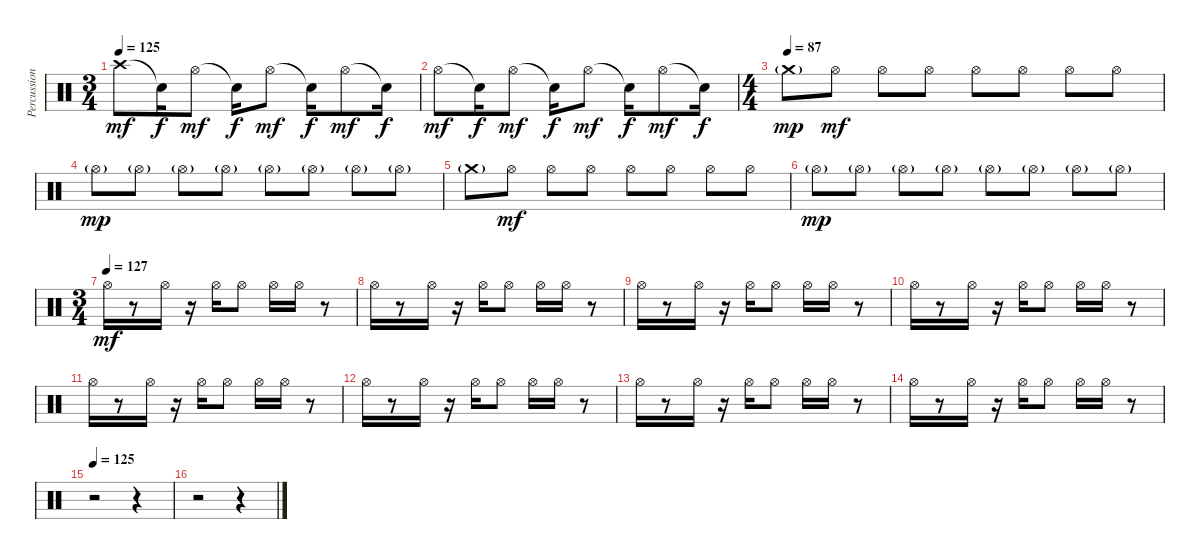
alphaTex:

\track ("Percussion2" "Percussion") {instrument percussion}
\staff {score}
\articulation defaults
\ts (3 4)
\tempo 125
\clef neutral
\ks c "Crash high (hit)".8{dy mf} "Snare (hit)"{t}.16{dy f} "Hi-Hat (open)".8{dy mf} "Snare (hit)"{t}.16{dy f} "Hi-Hat (open)".8{dy mf} "Snare (hit)"{t}.16{dy f} "Hi-Hat (open)".8{dy mf} "Snare (hit)"{t}.16{dy f}
|
"Hi-Hat (open)".8{dy mf} "Snare (hit)"{t}.16{dy f} "Hi-Hat (open)".8{dy mf} "Snare (hit)"{t}.16{dy f} "Hi-Hat (open)".8{dy mf} "Snare (hit)"{t}.16{dy f} "Hi-Hat (open)".8{dy mf} "Snare (hit)"{t}.16{dy f} |
\ts (4 4)
\tempo (87)
"Crash medium (hit)"{g}.8{dy mp} "Hi-Hat (open)".8{dy mf} "Hi-Hat (open)".8 "Hi-Hat (open)".8 "Hi-Hat (open)".8 "Hi-Hat (open)".8 "Hi-Hat (open)".8 "Hi-Hat (open)".8 |
"Hi-Hat (open)"{g}.8{dy mp} "Hi-Hat (open)"{g}.8 "Hi-Hat (open)"{g}.8 "Hi-Hat (open)"{g}.8 "Hi-Hat (open)"{g}.8 "Hi-Hat (open)"{g}.8 "Hi-Hat (open)"{g}.8 "Hi-Hat (open)"{g}.8 |
"Crash medium (hit)"{g}.8 "Hi-Hat (open)".8{dy mf} "Hi-Hat (open)".8 "Hi-Hat (open)".8 "Hi-Hat (open)".8 "Hi-Hat (open)".8 "Hi-Hat (open)".8 "Hi-Hat (open)".8 |
"Hi-Hat (open)"{g}.8{dy mp} "Hi-Hat (open)"{g}.8 "Hi-Hat (open)"{g}.8 "Hi-Hat (open)"{g}.8 "Hi-Hat (open)"{g}.8 "Hi-Hat (open)"{g}.8 "Hi-Hat (open)"{g}.8 "Hi-Hat (open)"{g}.8 |
\ts (3 4)
\tempo (127)
"Hi-Hat (open)".16{dy mf} r.8 "Hi-Hat (open)".16 r.16 "Hi-Hat (open)".16 "Hi-Hat (open)".8 "Hi-Hat (open)".16 "Hi-Hat (open)".16 r.8 |
"Hi-Hat (open)".16 r.8 "Hi-Hat (open)".16 r.16 "Hi-Hat (open)".16 "Hi-Hat (open)".8 "Hi-Hat (open)".16 "Hi-Hat (open)".16 r.8 |
"Hi-Hat (open)".16 r.8 "Hi-Hat (open)".16 r.16 "Hi-Hat (open)".16 "Hi-Hat (open)".8 "Hi-Hat (open)".16 "Hi-Hat (open)".16 r.8 |
"Hi-Hat (open)".16 r.8 "Hi-Hat (open)".16 r.16 "Hi-Hat (open)".16 "Hi-Hat (open)".8 "Hi-Hat (open)".16 "Hi-Hat (open)".16 r.8 |
"Hi-Hat (open)".16 r.8 "Hi-Hat (open)".16 r.16 "Hi-Hat (open)".16 "Hi-Hat (open)".8 "Hi-Hat (open)".16 "Hi-Hat (open)".16 r.8 |
"Hi-Hat (open)".16 r.8 "Hi-Hat (open)".16 r.16 "Hi-Hat (open)".16 "Hi-Hat (open)".8 "Hi-Hat (open)".16 "Hi-Hat (open)".16 r.8 |
"Hi-Hat (open)".16 r.8 "Hi-Hat (open)".16 r.16 "Hi-Hat (open)".16 "Hi-Hat (open)".8 "Hi-Hat (open)".16 "Hi-Hat (open)".16 r.8 |
"Hi-Hat (open)".16 r.8 "Hi-Hat (open)".16 r.16 "Hi-Hat (open)".16 "Hi-Hat (open)".8 "Hi-Hat (open)".16 "Hi-Hat (open)".16 r.8 |
\tempo 125
r.2 r.4 |
r.2 r.4
